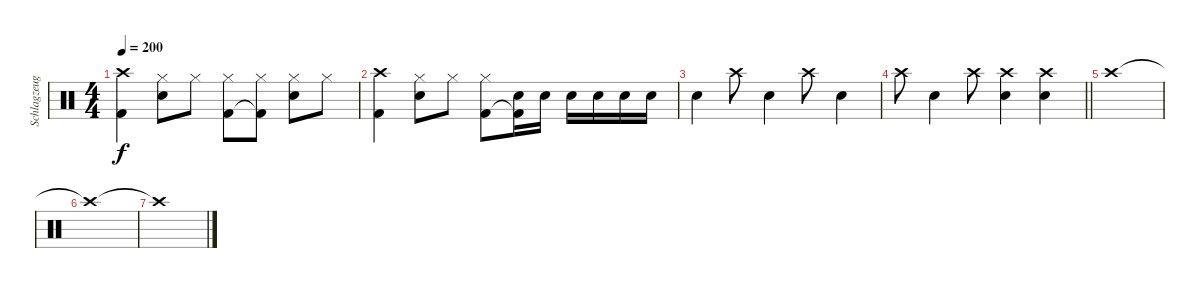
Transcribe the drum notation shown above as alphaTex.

\track ("Schlagzeug" "Schlagzeug") {instrument percussion}
\staff {score}
\articulation defaults
\ts (4 4)
\tempo 200
\clef neutral
\ks c
("Crash high (hit)" "Kick (hit) 2").4{dy f} ("Hi-Hat (closed)" "Electric Snare (hit)").8 "Hi-Hat (closed)".8 ("Hi-Hat (closed)" "Kick (hit) 2").8 ("Hi-Hat (closed)" "Kick (hit) 2"{t}).8 ("Hi-Hat (closed)" "Electric Snare (hit)").8 "Hi-Hat (closed)".8 |
("Crash high (hit)" "Kick (hit) 2").4 ("Hi-Hat (closed)" "Electric Snare (hit)").8 "Hi-Hat (closed)".8 ("Hi-Hat (closed)" "Kick (hit) 2").8 ("Electric Snare (hit)" "Kick (hit) 2"{t}).16 "Electric Snare (hit)".16 "Electric Snare (hit)".16 "Electric Snare (hit)".16 "Electric Snare (hit)".16 "Electric Snare (hit)".16 |
"Snare (hit) 2".4 "Crash high (hit)".8 "Snare (hit) 2".4 "Crash high (hit)".8 "Snare (hit) 2".4 |
\barLineRight lightlight "Crash high (hit)".8 "Snare (hit) 2".4 "Crash high (hit)".8
("Crash high (hit)" "Snare (hit) 2").4 ("Crash high (hit)" "Snare (hit) 2").4 |
"Crash high (hit)".1 |
"Crash high (hit)"{t}.1 |
"Crash high (hit)"{t}.1
